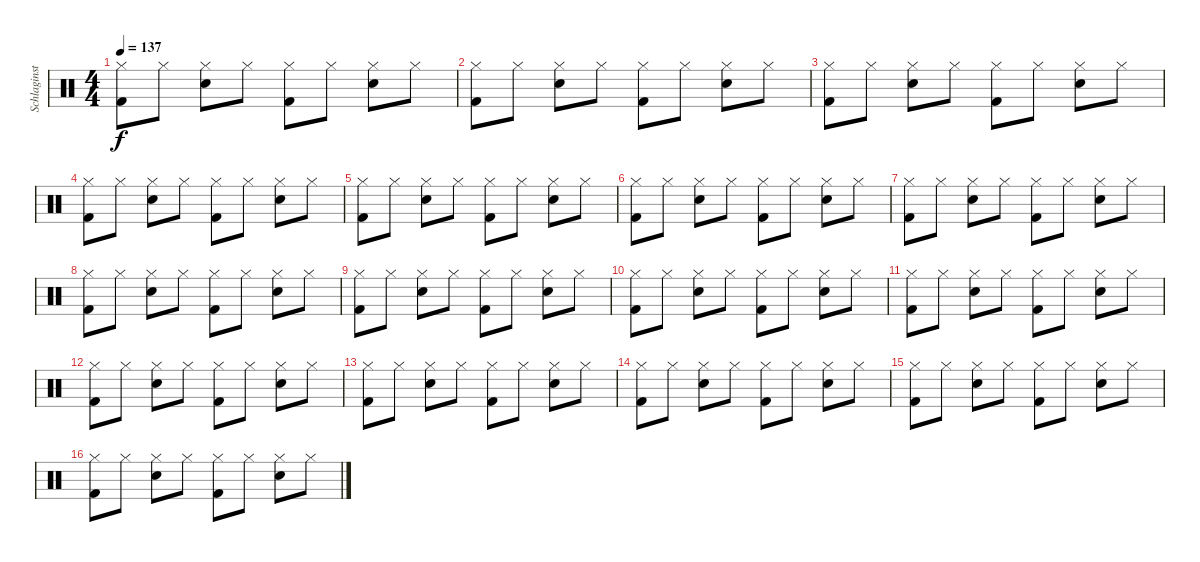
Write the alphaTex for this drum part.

\track ("Schlaginstrumente - Auswahl" "Schlaginst") {instrument percussion}
\staff {score}
\articulation defaults
\ts (4 4)
\tempo 137
\clef neutral
\ks c
("Hi-Hat (closed)" "Kick (hit) 2").8{dy f} "Hi-Hat (closed)".8 ("Hi-Hat (closed)" "Electric Snare (hit)").8 "Hi-Hat (closed)".8 ("Hi-Hat (closed)" "Kick (hit) 2").8 "Hi-Hat (closed)".8 ("Hi-Hat (closed)" "Electric Snare (hit)").8 "Hi-Hat (closed)".8 |
("Hi-Hat (closed)" "Kick (hit) 2").8 "Hi-Hat (closed)".8 ("Hi-Hat (closed)" "Electric Snare (hit)").8 "Hi-Hat (closed)".8 ("Hi-Hat (closed)" "Kick (hit) 2").8 "Hi-Hat (closed)".8 ("Hi-Hat (closed)" "Electric Snare (hit)").8 "Hi-Hat (closed)".8 |
("Hi-Hat (closed)" "Kick (hit) 2").8 "Hi-Hat (closed)".8 ("Hi-Hat (closed)" "Electric Snare (hit)").8 "Hi-Hat (closed)".8 ("Hi-Hat (closed)" "Kick (hit) 2").8 "Hi-Hat (closed)".8 ("Hi-Hat (closed)" "Electric Snare (hit)").8 "Hi-Hat (closed)".8 |
("Hi-Hat (closed)" "Kick (hit) 2").8 "Hi-Hat (closed)".8 ("Hi-Hat (closed)" "Electric Snare (hit)").8 "Hi-Hat (closed)".8 ("Hi-Hat (closed)" "Kick (hit) 2").8 "Hi-Hat (closed)".8 ("Hi-Hat (closed)" "Electric Snare (hit)").8 "Hi-Hat (closed)".8 |
("Hi-Hat (closed)" "Kick (hit) 2").8 "Hi-Hat (closed)".8 ("Hi-Hat (closed)" "Electric Snare (hit)").8 "Hi-Hat (closed)".8 ("Hi-Hat (closed)" "Kick (hit) 2").8 "Hi-Hat (closed)".8 ("Hi-Hat (closed)" "Electric Snare (hit)").8 "Hi-Hat (closed)".8 |
("Hi-Hat (closed)" "Kick (hit) 2").8 "Hi-Hat (closed)".8 ("Hi-Hat (closed)" "Electric Snare (hit)").8 "Hi-Hat (closed)".8 ("Hi-Hat (closed)" "Kick (hit) 2").8 "Hi-Hat (closed)".8 ("Hi-Hat (closed)" "Electric Snare (hit)").8 "Hi-Hat (closed)".8 |
("Hi-Hat (closed)" "Kick (hit) 2").8 "Hi-Hat (closed)".8 ("Hi-Hat (closed)" "Electric Snare (hit)").8 "Hi-Hat (closed)".8 ("Hi-Hat (closed)" "Kick (hit) 2").8 "Hi-Hat (closed)".8 ("Hi-Hat (closed)" "Electric Snare (hit)").8 "Hi-Hat (closed)".8 |
("Hi-Hat (closed)" "Kick (hit) 2").8 "Hi-Hat (closed)".8 ("Hi-Hat (closed)" "Electric Snare (hit)").8 "Hi-Hat (closed)".8 ("Hi-Hat (closed)" "Kick (hit) 2").8 "Hi-Hat (closed)".8 ("Hi-Hat (closed)" "Electric Snare (hit)").8 "Hi-Hat (closed)".8 |
("Hi-Hat (closed)" "Kick (hit) 2").8 "Hi-Hat (closed)".8 ("Hi-Hat (closed)" "Electric Snare (hit)").8 "Hi-Hat (closed)".8 ("Hi-Hat (closed)" "Kick (hit) 2").8 "Hi-Hat (closed)".8 ("Hi-Hat (closed)" "Electric Snare (hit)").8 "Hi-Hat (closed)".8 |
("Hi-Hat (closed)" "Kick (hit) 2").8 "Hi-Hat (closed)".8 ("Hi-Hat (closed)" "Electric Snare (hit)").8 "Hi-Hat (closed)".8 ("Hi-Hat (closed)" "Kick (hit) 2").8 "Hi-Hat (closed)".8 ("Hi-Hat (closed)" "Electric Snare (hit)").8 "Hi-Hat (closed)".8 |
("Hi-Hat (closed)" "Kick (hit) 2").8 "Hi-Hat (closed)".8 ("Hi-Hat (closed)" "Electric Snare (hit)").8 "Hi-Hat (closed)".8 ("Hi-Hat (closed)" "Kick (hit) 2").8 "Hi-Hat (closed)".8 ("Hi-Hat (closed)" "Electric Snare (hit)").8 "Hi-Hat (closed)".8 |
("Hi-Hat (closed)" "Kick (hit) 2").8 "Hi-Hat (closed)".8 ("Hi-Hat (closed)" "Electric Snare (hit)").8 "Hi-Hat (closed)".8 ("Hi-Hat (closed)" "Kick (hit) 2").8 "Hi-Hat (closed)".8 ("Hi-Hat (closed)" "Electric Snare (hit)").8 "Hi-Hat (closed)".8 |
("Hi-Hat (closed)" "Kick (hit) 2").8 "Hi-Hat (closed)".8 ("Hi-Hat (closed)" "Electric Snare (hit)").8 "Hi-Hat (closed)".8 ("Hi-Hat (closed)" "Kick (hit) 2").8 "Hi-Hat (closed)".8 ("Hi-Hat (closed)" "Electric Snare (hit)").8 "Hi-Hat (closed)".8 |
("Hi-Hat (closed)" "Kick (hit) 2").8 "Hi-Hat (closed)".8 ("Hi-Hat (closed)" "Electric Snare (hit)").8 "Hi-Hat (closed)".8 ("Hi-Hat (closed)" "Kick (hit) 2").8 "Hi-Hat (closed)".8 ("Hi-Hat (closed)" "Electric Snare (hit)").8 "Hi-Hat (closed)".8 |
("Hi-Hat (closed)" "Kick (hit) 2").8 "Hi-Hat (closed)".8 ("Hi-Hat (closed)" "Electric Snare (hit)").8 "Hi-Hat (closed)".8 ("Hi-Hat (closed)" "Kick (hit) 2").8 "Hi-Hat (closed)".8 ("Hi-Hat (closed)" "Electric Snare (hit)").8 "Hi-Hat (closed)".8 |
("Hi-Hat (closed)" "Kick (hit) 2").8 "Hi-Hat (closed)".8 ("Hi-Hat (closed)" "Electric Snare (hit)").8 "Hi-Hat (closed)".8 ("Hi-Hat (closed)" "Kick (hit) 2").8 "Hi-Hat (closed)".8 ("Hi-Hat (closed)" "Electric Snare (hit)").8 "Hi-Hat (closed)".8
